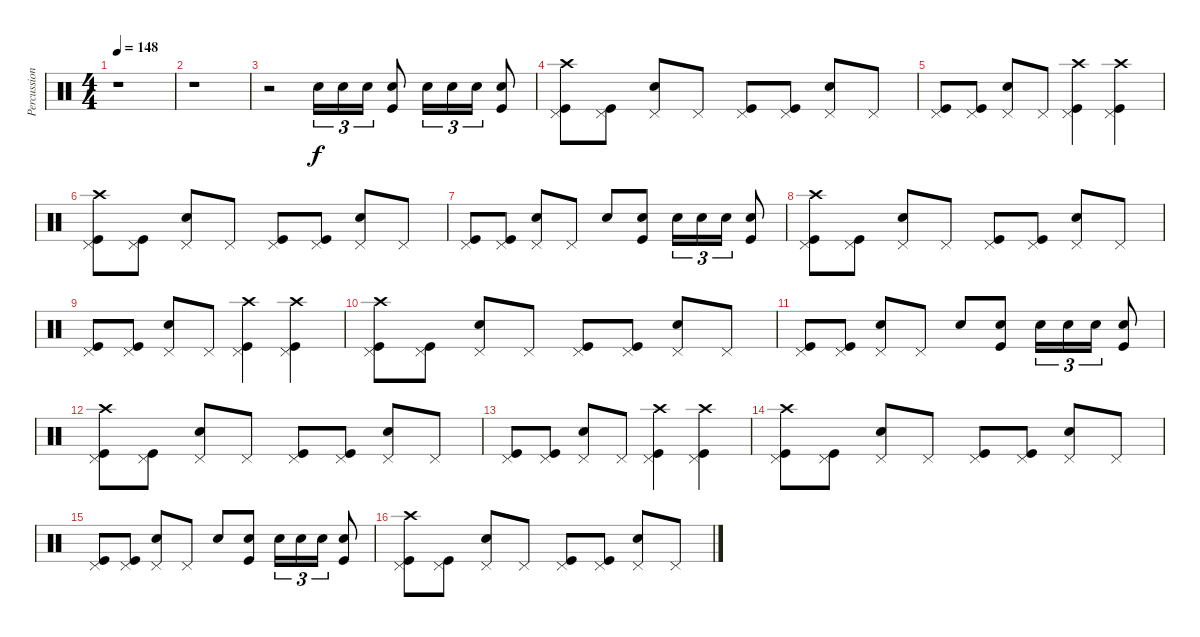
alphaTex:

\track ("Percussion" "Percussion") {instrument percussion}
\staff {score}
\articulation defaults
\ts (4 4)
\tempo 148
\clef neutral
\ks c
r.1{dy f} |
r.1 |
r.2 "Snare (hit) 2".16{tu (3 2)} "Snare (hit) 2".16{tu (3 2)} "Snare (hit) 2".16{tu (3 2)} ("Snare (hit) 2" "Kick (hit)").8 "Snare (hit) 2".16{tu (3 2)} "Snare (hit) 2".16{tu (3 2)} "Snare (hit) 2".16{tu (3 2)} ("Snare (hit) 2" "Kick (hit)").8 |
("Pedal Hi-Hat (hit)" "Kick (hit)" "Crash high (hit)").8 ("Pedal Hi-Hat (hit)" "Kick (hit)").8 ("Pedal Hi-Hat (hit)" "Snare (hit) 2").8 "Pedal Hi-Hat (hit)".8 ("Pedal Hi-Hat (hit)" "Kick (hit)").8 ("Pedal Hi-Hat (hit)" "Kick (hit)").8 ("Pedal Hi-Hat (hit)" "Snare (hit) 2").8 "Pedal Hi-Hat (hit)".8 |
("Pedal Hi-Hat (hit)" "Kick (hit)").8 ("Pedal Hi-Hat (hit)" "Kick (hit)").8 ("Pedal Hi-Hat (hit)" "Snare (hit) 2").8 "Pedal Hi-Hat (hit)".8 ("Pedal Hi-Hat (hit)" "Crash high (hit)" "Kick (hit)").4 ("Pedal Hi-Hat (hit)" "Crash high (hit)" "Kick (hit)").4 |
("Pedal Hi-Hat (hit)" "Kick (hit)" "Crash high (hit)").8 ("Pedal Hi-Hat (hit)" "Kick (hit)").8 ("Pedal Hi-Hat (hit)" "Snare (hit) 2").8 "Pedal Hi-Hat (hit)".8 ("Pedal Hi-Hat (hit)" "Kick (hit)").8 ("Pedal Hi-Hat (hit)" "Kick (hit)").8 ("Pedal Hi-Hat (hit)" "Snare (hit) 2").8 "Pedal Hi-Hat (hit)".8 |
("Pedal Hi-Hat (hit)" "Kick (hit)").8 ("Pedal Hi-Hat (hit)" "Kick (hit)").8 ("Pedal Hi-Hat (hit)" "Snare (hit) 2").8 "Pedal Hi-Hat (hit)".8 "Snare (hit) 2".8 ("Snare (hit) 2" "Kick (hit)").8 "Snare (hit) 2".16{tu (3 2)} "Snare (hit) 2".16{tu (3 2)} "Snare (hit) 2".16{tu (3 2)} ("Snare (hit) 2" "Kick (hit)").8 |
("Pedal Hi-Hat (hit)" "Kick (hit)" "Crash high (hit)").8 ("Pedal Hi-Hat (hit)" "Kick (hit)").8 ("Pedal Hi-Hat (hit)" "Snare (hit) 2").8 "Pedal Hi-Hat (hit)".8 ("Pedal Hi-Hat (hit)" "Kick (hit)").8 ("Pedal Hi-Hat (hit)" "Kick (hit)").8 ("Pedal Hi-Hat (hit)" "Snare (hit) 2").8 "Pedal Hi-Hat (hit)".8 |
("Pedal Hi-Hat (hit)" "Kick (hit)").8 ("Pedal Hi-Hat (hit)" "Kick (hit)").8 ("Pedal Hi-Hat (hit)" "Snare (hit) 2").8 "Pedal Hi-Hat (hit)".8 ("Pedal Hi-Hat (hit)" "Crash high (hit)" "Kick (hit)").4 ("Pedal Hi-Hat (hit)" "Crash high (hit)" "Kick (hit)").4 |
("Pedal Hi-Hat (hit)" "Kick (hit)" "Crash high (hit)").8 ("Pedal Hi-Hat (hit)" "Kick (hit)").8 ("Pedal Hi-Hat (hit)" "Snare (hit) 2").8 "Pedal Hi-Hat (hit)".8 ("Pedal Hi-Hat (hit)" "Kick (hit)").8 ("Pedal Hi-Hat (hit)" "Kick (hit)").8 ("Pedal Hi-Hat (hit)" "Snare (hit) 2").8 "Pedal Hi-Hat (hit)".8 |
("Pedal Hi-Hat (hit)" "Kick (hit)").8 ("Pedal Hi-Hat (hit)" "Kick (hit)").8 ("Pedal Hi-Hat (hit)" "Snare (hit) 2").8 "Pedal Hi-Hat (hit)".8 "Snare (hit) 2".8 ("Snare (hit) 2" "Kick (hit)").8 "Snare (hit) 2".16{tu (3 2)} "Snare (hit) 2".16{tu (3 2)} "Snare (hit) 2".16{tu (3 2)} ("Snare (hit) 2" "Kick (hit)").8 |
("Pedal Hi-Hat (hit)" "Kick (hit)" "Crash high (hit)").8 ("Pedal Hi-Hat (hit)" "Kick (hit)").8 ("Pedal Hi-Hat (hit)" "Snare (hit) 2").8 "Pedal Hi-Hat (hit)".8 ("Pedal Hi-Hat (hit)" "Kick (hit)").8 ("Pedal Hi-Hat (hit)" "Kick (hit)").8 ("Pedal Hi-Hat (hit)" "Snare (hit) 2").8 "Pedal Hi-Hat (hit)".8 |
("Pedal Hi-Hat (hit)" "Kick (hit)").8 ("Pedal Hi-Hat (hit)" "Kick (hit)").8 ("Pedal Hi-Hat (hit)" "Snare (hit) 2").8 "Pedal Hi-Hat (hit)".8 ("Pedal Hi-Hat (hit)" "Crash high (hit)" "Kick (hit)").4 ("Pedal Hi-Hat (hit)" "Crash high (hit)" "Kick (hit)").4 |
("Pedal Hi-Hat (hit)" "Kick (hit)" "Crash high (hit)").8 ("Pedal Hi-Hat (hit)" "Kick (hit)").8 ("Pedal Hi-Hat (hit)" "Snare (hit) 2").8 "Pedal Hi-Hat (hit)".8 ("Pedal Hi-Hat (hit)" "Kick (hit)").8 ("Pedal Hi-Hat (hit)" "Kick (hit)").8 ("Pedal Hi-Hat (hit)" "Snare (hit) 2").8 "Pedal Hi-Hat (hit)".8 |
("Pedal Hi-Hat (hit)" "Kick (hit)").8 ("Pedal Hi-Hat (hit)" "Kick (hit)").8 ("Pedal Hi-Hat (hit)" "Snare (hit) 2").8 "Pedal Hi-Hat (hit)".8 "Snare (hit) 2".8 ("Snare (hit) 2" "Kick (hit)").8 "Snare (hit) 2".16{tu (3 2)} "Snare (hit) 2".16{tu (3 2)} "Snare (hit) 2".16{tu (3 2)} ("Snare (hit) 2" "Kick (hit)").8 |
("Pedal Hi-Hat (hit)" "Kick (hit)" "Crash high (hit)").8 ("Pedal Hi-Hat (hit)" "Kick (hit)").8 ("Pedal Hi-Hat (hit)" "Snare (hit) 2").8 "Pedal Hi-Hat (hit)".8 ("Pedal Hi-Hat (hit)" "Kick (hit)").8 ("Pedal Hi-Hat (hit)" "Kick (hit)").8 ("Pedal Hi-Hat (hit)" "Snare (hit) 2").8 "Pedal Hi-Hat (hit)".8
